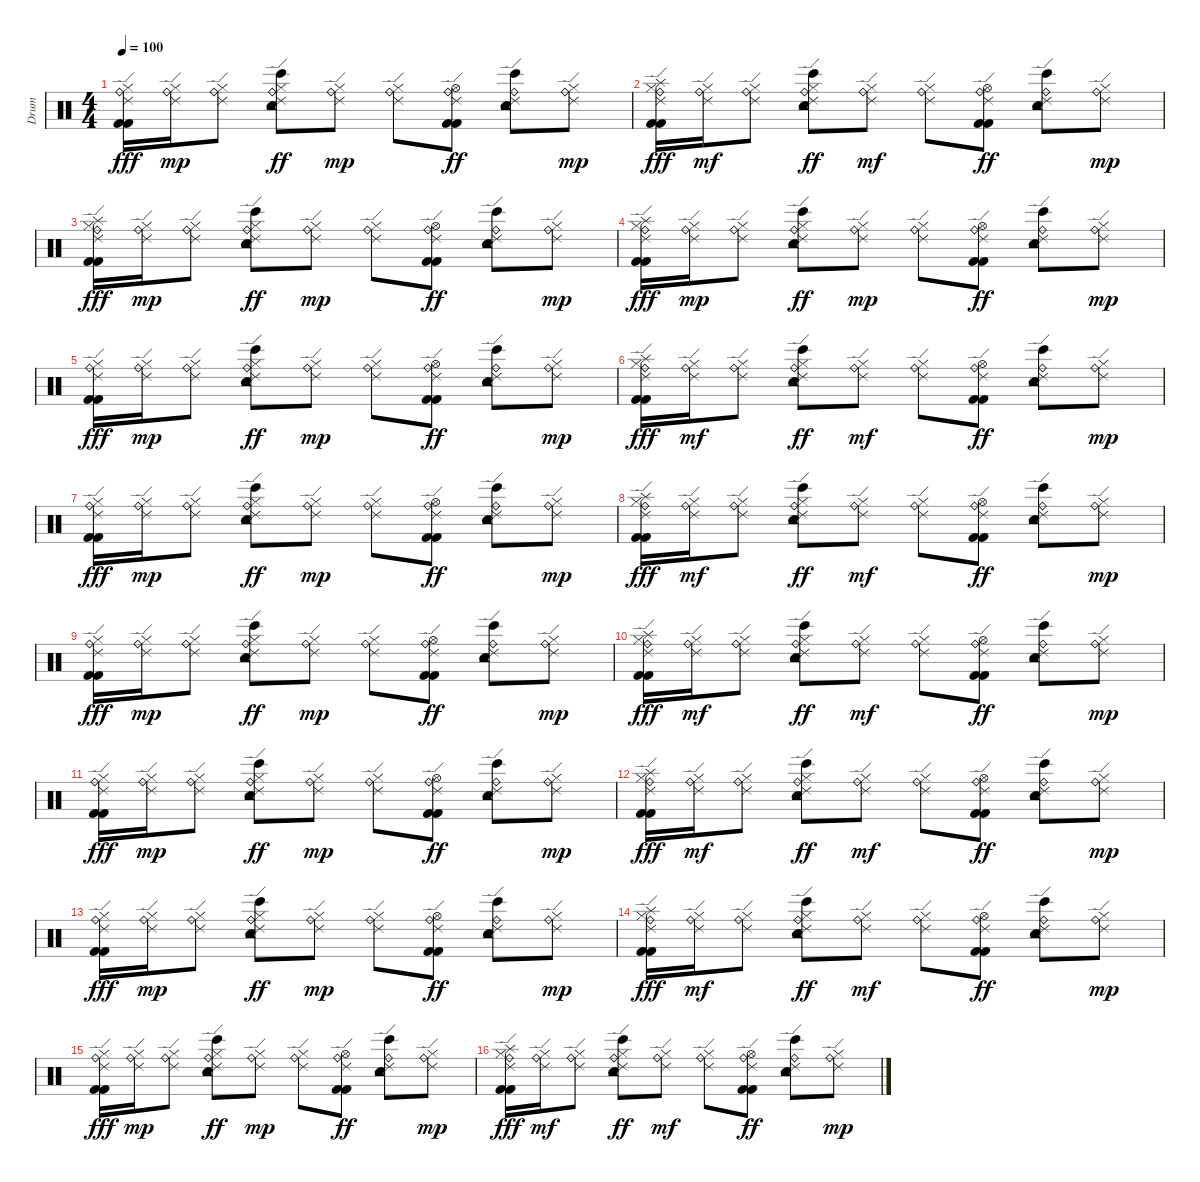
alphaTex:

\track ("Drum" "Drum") {instrument percussion}
\staff {score}
\articulation defaults
\ts (4 4)
\tempo 100
\clef neutral
\ks c
("Ride (bell)" "Ride (edge) 2" "Hi-Hat (closed)" "Kick (hit) 2" "Kick (hit) 2").16{dy fff} ("Ride (bell)" "Ride (edge) 2" "Hi-Hat (closed)").16{dy mp} ("Ride (bell)" "Ride (edge) 2" "Hi-Hat (closed)").8 ("Snare (hit) 2" "Ride (bell)" "Ride (edge) 2" "Hi-Hat (closed)" "Bongo High (hit)" "Tambourine (hit)").8{dy ff} ("Ride (bell)" "Ride (edge) 2" "Hi-Hat (closed)").8{dy mp} ("Ride (bell)" "Ride (edge) 2" "Hi-Hat (closed)").8 ("Ride (bell)" "Ride (edge) 2" "Hi-Hat (open)" "Kick (hit) 2" "Kick (hit) 2").8{dy ff} ("Snare (hit) 2" "Ride (bell)" "Ride (edge) 2" "Bongo High (hit)" "Tambourine (hit)").8 ("Ride (bell)" "Ride (edge) 2" "Hi-Hat (closed)").8{dy mp} |
("Splash (hit)" "Ride (bell)" "Ride (edge) 2" "Hi-Hat (closed)" "Kick (hit) 2" "Kick (hit) 2").16{dy fff} ("Ride (bell)" "Ride (edge) 2" "Hi-Hat (closed)").16{dy mf} ("Ride (bell)" "Ride (edge) 2" "Hi-Hat (closed)").8 ("Snare (hit) 2" "Ride (bell)" "Ride (edge) 2" "Hi-Hat (closed)" "Bongo High (hit)" "Tambourine (hit)").8{dy ff} ("Ride (bell)" "Ride (edge) 2" "Hi-Hat (closed)").8{dy mf} ("Ride (bell)" "Ride (edge) 2" "Hi-Hat (closed)").8 ("Ride (bell)" "Ride (edge) 2" "Hi-Hat (open)" "Kick (hit) 2" "Kick (hit) 2").8{dy ff} ("Snare (hit) 2" "Ride (bell)" "Ride (edge) 2" "Bongo High (hit)" "Tambourine (hit)").8 ("Ride (bell)" "Ride (edge) 2" "Hi-Hat (closed)").8{dy mp} |
("Splash (hit)" "Ride (bell)" "Ride (edge) 2" "Hi-Hat (closed)" "Kick (hit) 2" "Kick (hit) 2").16{dy fff} ("Ride (bell)" "Ride (edge) 2" "Hi-Hat (closed)").16{dy mp} ("Ride (bell)" "Ride (edge) 2" "Hi-Hat (closed)").8 ("Snare (hit) 2" "Ride (bell)" "Ride (edge) 2" "Hi-Hat (closed)" "Bongo High (hit)" "Tambourine (hit)").8{dy ff} ("Ride (bell)" "Ride (edge) 2" "Hi-Hat (closed)").8{dy mp} ("Ride (bell)" "Ride (edge) 2" "Hi-Hat (closed)").8 ("Ride (bell)" "Ride (edge) 2" "Hi-Hat (open)" "Kick (hit) 2" "Kick (hit) 2").8{dy ff} ("Snare (hit) 2" "Ride (bell)" "Ride (edge) 2" "Bongo High (hit)" "Tambourine (hit)").8 ("Ride (bell)" "Ride (edge) 2" "Hi-Hat (closed)").8{dy mp} |
("Splash (hit)" "Ride (bell)" "Ride (edge) 2" "Hi-Hat (closed)" "Kick (hit) 2" "Kick (hit) 2").16{dy fff} ("Ride (bell)" "Ride (edge) 2" "Hi-Hat (closed)").16{dy mp} ("Ride (bell)" "Ride (edge) 2" "Hi-Hat (closed)").8 ("Snare (hit) 2" "Ride (bell)" "Ride (edge) 2" "Hi-Hat (closed)" "Bongo High (hit)" "Tambourine (hit)").8{dy ff} ("Ride (bell)" "Ride (edge) 2" "Hi-Hat (closed)").8{dy mp} ("Ride (bell)" "Ride (edge) 2" "Hi-Hat (closed)").8 ("Ride (bell)" "Ride (edge) 2" "Hi-Hat (open)" "Kick (hit) 2" "Kick (hit) 2").8{dy ff} ("Snare (hit) 2" "Ride (bell)" "Ride (edge) 2" "Bongo High (hit)" "Tambourine (hit)").8 ("Ride (bell)" "Ride (edge) 2" "Hi-Hat (closed)").8{dy mp} |
("Ride (bell)" "Ride (edge) 2" "Hi-Hat (closed)" "Kick (hit) 2" "Kick (hit) 2").16{dy fff} ("Ride (bell)" "Ride (edge) 2" "Hi-Hat (closed)").16{dy mp} ("Ride (bell)" "Ride (edge) 2" "Hi-Hat (closed)").8 ("Snare (hit) 2" "Ride (bell)" "Ride (edge) 2" "Hi-Hat (closed)" "Bongo High (hit)" "Tambourine (hit)").8{dy ff} ("Ride (bell)" "Ride (edge) 2" "Hi-Hat (closed)").8{dy mp} ("Ride (bell)" "Ride (edge) 2" "Hi-Hat (closed)").8 ("Ride (bell)" "Ride (edge) 2" "Hi-Hat (open)" "Kick (hit) 2" "Kick (hit) 2").8{dy ff} ("Snare (hit) 2" "Ride (bell)" "Ride (edge) 2" "Bongo High (hit)" "Tambourine (hit)").8 ("Ride (bell)" "Ride (edge) 2" "Hi-Hat (closed)").8{dy mp} |
("Splash (hit)" "Ride (bell)" "Ride (edge) 2" "Hi-Hat (closed)" "Kick (hit) 2" "Kick (hit) 2").16{dy fff volume 12} ("Ride (bell)" "Ride (edge) 2" "Hi-Hat (closed)").16{dy mf} ("Ride (bell)" "Ride (edge) 2" "Hi-Hat (closed)").8 ("Snare (hit) 2" "Ride (bell)" "Ride (edge) 2" "Hi-Hat (closed)" "Bongo High (hit)" "Tambourine (hit)").8{dy ff} ("Ride (bell)" "Ride (edge) 2" "Hi-Hat (closed)").8{dy mf} ("Ride (bell)" "Ride (edge) 2" "Hi-Hat (closed)").8 ("Ride (bell)" "Ride (edge) 2" "Hi-Hat (open)" "Kick (hit) 2" "Kick (hit) 2").8{dy ff} ("Snare (hit) 2" "Ride (bell)" "Ride (edge) 2" "Bongo High (hit)" "Tambourine (hit)").8 ("Ride (bell)" "Ride (edge) 2" "Hi-Hat (closed)").8{dy mp} |
("Ride (bell)" "Ride (edge) 2" "Hi-Hat (closed)" "Kick (hit) 2" "Kick (hit) 2").16{dy fff} ("Ride (bell)" "Ride (edge) 2" "Hi-Hat (closed)").16{dy mp} ("Ride (bell)" "Ride (edge) 2" "Hi-Hat (closed)").8 ("Snare (hit) 2" "Ride (bell)" "Ride (edge) 2" "Hi-Hat (closed)" "Bongo High (hit)" "Tambourine (hit)").8{dy ff} ("Ride (bell)" "Ride (edge) 2" "Hi-Hat (closed)").8{dy mp} ("Ride (bell)" "Ride (edge) 2" "Hi-Hat (closed)").8 ("Ride (bell)" "Ride (edge) 2" "Hi-Hat (open)" "Kick (hit) 2" "Kick (hit) 2").8{dy ff} ("Snare (hit) 2" "Ride (bell)" "Ride (edge) 2" "Bongo High (hit)" "Tambourine (hit)").8 ("Ride (bell)" "Ride (edge) 2" "Hi-Hat (closed)").8{dy mp} |
("Splash (hit)" "Ride (bell)" "Ride (edge) 2" "Hi-Hat (closed)" "Kick (hit) 2" "Kick (hit) 2").16{dy fff} ("Ride (bell)" "Ride (edge) 2" "Hi-Hat (closed)").16{dy mf} ("Ride (bell)" "Ride (edge) 2" "Hi-Hat (closed)").8 ("Snare (hit) 2" "Ride (bell)" "Ride (edge) 2" "Hi-Hat (closed)" "Bongo High (hit)" "Tambourine (hit)").8{dy ff} ("Ride (bell)" "Ride (edge) 2" "Hi-Hat (closed)").8{dy mf} ("Ride (bell)" "Ride (edge) 2" "Hi-Hat (closed)").8 ("Ride (bell)" "Ride (edge) 2" "Hi-Hat (open)" "Kick (hit) 2" "Kick (hit) 2").8{dy ff} ("Snare (hit) 2" "Ride (bell)" "Ride (edge) 2" "Bongo High (hit)" "Tambourine (hit)").8 ("Ride (bell)" "Ride (edge) 2" "Hi-Hat (closed)").8{dy mp} |
("Ride (bell)" "Ride (edge) 2" "Hi-Hat (closed)" "Kick (hit) 2" "Kick (hit) 2").16{dy fff} ("Ride (bell)" "Ride (edge) 2" "Hi-Hat (closed)").16{dy mp} ("Ride (bell)" "Ride (edge) 2" "Hi-Hat (closed)").8 ("Snare (hit) 2" "Ride (bell)" "Ride (edge) 2" "Hi-Hat (closed)" "Bongo High (hit)" "Tambourine (hit)").8{dy ff} ("Ride (bell)" "Ride (edge) 2" "Hi-Hat (closed)").8{dy mp} ("Ride (bell)" "Ride (edge) 2" "Hi-Hat (closed)").8 ("Ride (bell)" "Ride (edge) 2" "Hi-Hat (open)" "Kick (hit) 2" "Kick (hit) 2").8{dy ff} ("Snare (hit) 2" "Ride (bell)" "Ride (edge) 2" "Bongo High (hit)" "Tambourine (hit)").8 ("Ride (bell)" "Ride (edge) 2" "Hi-Hat (closed)").8{dy mp} |
("Splash (hit)" "Ride (bell)" "Ride (edge) 2" "Hi-Hat (closed)" "Kick (hit) 2" "Kick (hit) 2").16{dy fff} ("Ride (bell)" "Ride (edge) 2" "Hi-Hat (closed)").16{dy mf} ("Ride (bell)" "Ride (edge) 2" "Hi-Hat (closed)").8 ("Snare (hit) 2" "Ride (bell)" "Ride (edge) 2" "Hi-Hat (closed)" "Bongo High (hit)" "Tambourine (hit)").8{dy ff} ("Ride (bell)" "Ride (edge) 2" "Hi-Hat (closed)").8{dy mf} ("Ride (bell)" "Ride (edge) 2" "Hi-Hat (closed)").8 ("Ride (bell)" "Ride (edge) 2" "Hi-Hat (open)" "Kick (hit) 2" "Kick (hit) 2").8{dy ff} ("Snare (hit) 2" "Ride (bell)" "Ride (edge) 2" "Bongo High (hit)" "Tambourine (hit)").8 ("Ride (bell)" "Ride (edge) 2" "Hi-Hat (closed)").8{dy mp} |
("Ride (bell)" "Ride (edge) 2" "Hi-Hat (closed)" "Kick (hit) 2" "Kick (hit) 2").16{dy fff} ("Ride (bell)" "Ride (edge) 2" "Hi-Hat (closed)").16{dy mp} ("Ride (bell)" "Ride (edge) 2" "Hi-Hat (closed)").8 ("Snare (hit) 2" "Ride (bell)" "Ride (edge) 2" "Hi-Hat (closed)" "Bongo High (hit)" "Tambourine (hit)").8{dy ff} ("Ride (bell)" "Ride (edge) 2" "Hi-Hat (closed)").8{dy mp} ("Ride (bell)" "Ride (edge) 2" "Hi-Hat (closed)").8 ("Ride (bell)" "Ride (edge) 2" "Hi-Hat (open)" "Kick (hit) 2" "Kick (hit) 2").8{dy ff} ("Snare (hit) 2" "Ride (bell)" "Ride (edge) 2" "Bongo High (hit)" "Tambourine (hit)").8 ("Ride (bell)" "Ride (edge) 2" "Hi-Hat (closed)").8{dy mp} |
("Splash (hit)" "Ride (bell)" "Ride (edge) 2" "Hi-Hat (closed)" "Kick (hit) 2" "Kick (hit) 2").16{dy fff} ("Ride (bell)" "Ride (edge) 2" "Hi-Hat (closed)").16{dy mf} ("Ride (bell)" "Ride (edge) 2" "Hi-Hat (closed)").8 ("Snare (hit) 2" "Ride (bell)" "Ride (edge) 2" "Hi-Hat (closed)" "Bongo High (hit)" "Tambourine (hit)").8{dy ff} ("Ride (bell)" "Ride (edge) 2" "Hi-Hat (closed)").8{dy mf} ("Ride (bell)" "Ride (edge) 2" "Hi-Hat (closed)").8 ("Ride (bell)" "Ride (edge) 2" "Hi-Hat (open)" "Kick (hit) 2" "Kick (hit) 2").8{dy ff} ("Snare (hit) 2" "Ride (bell)" "Ride (edge) 2" "Bongo High (hit)" "Tambourine (hit)").8 ("Ride (bell)" "Ride (edge) 2" "Hi-Hat (closed)").8{dy mp} |
("Ride (bell)" "Ride (edge) 2" "Hi-Hat (closed)" "Kick (hit) 2" "Kick (hit) 2").16{dy fff} ("Ride (bell)" "Ride (edge) 2" "Hi-Hat (closed)").16{dy mp} ("Ride (bell)" "Ride (edge) 2" "Hi-Hat (closed)").8 ("Snare (hit) 2" "Ride (bell)" "Ride (edge) 2" "Hi-Hat (closed)" "Bongo High (hit)" "Tambourine (hit)").8{dy ff} ("Ride (bell)" "Ride (edge) 2" "Hi-Hat (closed)").8{dy mp} ("Ride (bell)" "Ride (edge) 2" "Hi-Hat (closed)").8 ("Ride (bell)" "Ride (edge) 2" "Hi-Hat (open)" "Kick (hit) 2" "Kick (hit) 2").8{dy ff} ("Snare (hit) 2" "Ride (bell)" "Ride (edge) 2" "Bongo High (hit)" "Tambourine (hit)").8 ("Ride (bell)" "Ride (edge) 2" "Hi-Hat (closed)").8{dy mp} |
("Splash (hit)" "Ride (bell)" "Ride (edge) 2" "Hi-Hat (closed)" "Kick (hit) 2" "Kick (hit) 2").16{dy fff} ("Ride (bell)" "Ride (edge) 2" "Hi-Hat (closed)").16{dy mf} ("Ride (bell)" "Ride (edge) 2" "Hi-Hat (closed)").8 ("Snare (hit) 2" "Ride (bell)" "Ride (edge) 2" "Hi-Hat (closed)" "Bongo High (hit)" "Tambourine (hit)").8{dy ff} ("Ride (bell)" "Ride (edge) 2" "Hi-Hat (closed)").8{dy mf} ("Ride (bell)" "Ride (edge) 2" "Hi-Hat (closed)").8 ("Ride (bell)" "Ride (edge) 2" "Hi-Hat (open)" "Kick (hit) 2" "Kick (hit) 2").8{dy ff} ("Snare (hit) 2" "Ride (bell)" "Ride (edge) 2" "Bongo High (hit)" "Tambourine (hit)").8 ("Ride (bell)" "Ride (edge) 2" "Hi-Hat (closed)").8{dy mp} |
("Ride (bell)" "Ride (edge) 2" "Hi-Hat (closed)" "Kick (hit) 2" "Kick (hit) 2").16{dy fff} ("Ride (bell)" "Ride (edge) 2" "Hi-Hat (closed)").16{dy mp} ("Ride (bell)" "Ride (edge) 2" "Hi-Hat (closed)").8 ("Snare (hit) 2" "Ride (bell)" "Ride (edge) 2" "Hi-Hat (closed)" "Bongo High (hit)" "Tambourine (hit)").8{dy ff} ("Ride (bell)" "Ride (edge) 2" "Hi-Hat (closed)").8{dy mp} ("Ride (bell)" "Ride (edge) 2" "Hi-Hat (closed)").8 ("Ride (bell)" "Ride (edge) 2" "Hi-Hat (open)" "Kick (hit) 2" "Kick (hit) 2").8{dy ff} ("Snare (hit) 2" "Ride (bell)" "Ride (edge) 2" "Bongo High (hit)" "Tambourine (hit)").8 ("Ride (bell)" "Ride (edge) 2" "Hi-Hat (closed)").8{dy mp} |
("Splash (hit)" "Ride (bell)" "Ride (edge) 2" "Hi-Hat (closed)" "Kick (hit) 2" "Kick (hit) 2").16{dy fff} ("Ride (bell)" "Ride (edge) 2" "Hi-Hat (closed)").16{dy mf} ("Ride (bell)" "Ride (edge) 2" "Hi-Hat (closed)").8 ("Snare (hit) 2" "Ride (bell)" "Ride (edge) 2" "Hi-Hat (closed)" "Bongo High (hit)" "Tambourine (hit)").8{dy ff} ("Ride (bell)" "Ride (edge) 2" "Hi-Hat (closed)").8{dy mf} ("Ride (bell)" "Ride (edge) 2" "Hi-Hat (closed)").8 ("Ride (bell)" "Ride (edge) 2" "Hi-Hat (open)" "Kick (hit) 2" "Kick (hit) 2").8{dy ff} ("Snare (hit) 2" "Ride (bell)" "Ride (edge) 2" "Bongo High (hit)" "Tambourine (hit)").8 ("Ride (bell)" "Ride (edge) 2" "Hi-Hat (closed)").8{dy mp}
